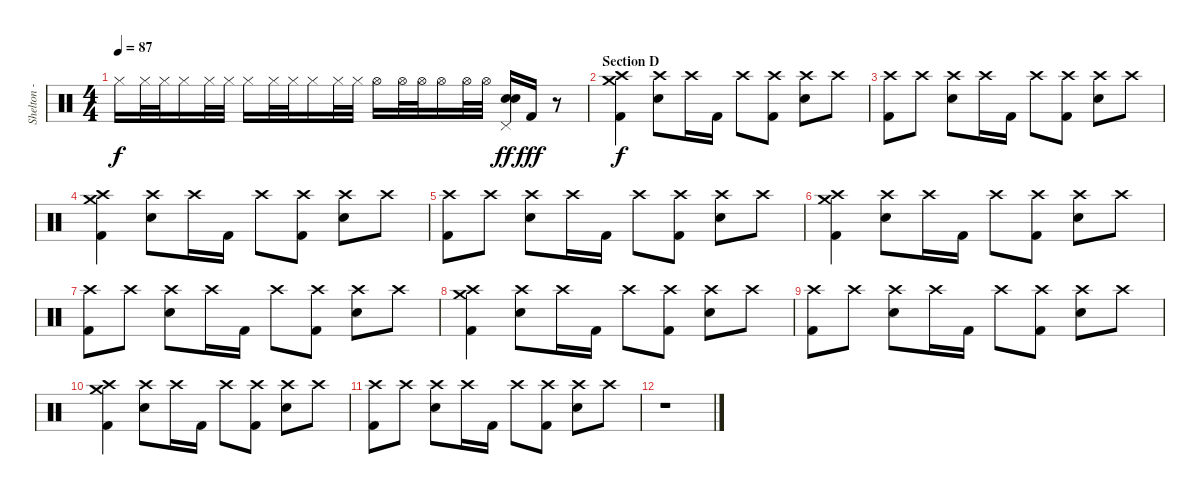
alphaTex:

\track ("Shelton - Drums" "Shelton - ") {instrument percussion}
\staff {score}
\articulation defaults
\ts (4 4)
\tempo 87
\clef neutral
\ks c "Hi-Hat (closed)".16{dy f volume 15} "Hi-Hat (closed)".32 "Hi-Hat (closed)".32 "Hi-Hat (closed)".16 "Hi-Hat (closed)".32 "Hi-Hat (closed)".32 "Hi-Hat (closed)".16 "Hi-Hat (closed)".32 "Hi-Hat (closed)".32 "Hi-Hat (closed)".16 "Hi-Hat (closed)".32 "Hi-Hat (closed)".32 "Hi-Hat (open)".16 "Hi-Hat (open)".32 "Hi-Hat (open)".32 "Hi-Hat (open)".16 "Hi-Hat (open)".32 "Hi-Hat (open)".32
("Pedal Hi-Hat (hit)" "Electric Snare (hit)" "Electric Snare (hit)").16{dy ff} "Kick (hit) 2".16{dy fff} r.8{volume 0} |
\section ("" "Section D")
("Crash high (hit)" "Crash medium (hit)" "Kick (hit) 2").4{dy f volume 15} ("Crash high (hit)" "Electric Snare (hit)").8 "Crash high (hit)".16 "Kick (hit) 2".16 "Crash high (hit)".8 ("Crash high (hit)" "Kick (hit) 2").8 ("Crash high (hit)" "Electric Snare (hit)").8 "Crash high (hit)".8 |
("Crash high (hit)" "Kick (hit) 2").8 "Crash high (hit)".8 ("Crash high (hit)" "Electric Snare (hit)").8 "Crash high (hit)".16 "Kick (hit) 2".16 "Crash high (hit)".8 ("Crash high (hit)" "Kick (hit) 2").8 ("Crash high (hit)" "Electric Snare (hit)").8 "Crash high (hit)".8 |
("Crash high (hit)" "Crash medium (hit)" "Kick (hit) 2").4 ("Crash high (hit)" "Electric Snare (hit)").8 "Crash high (hit)".16 "Kick (hit) 2".16 "Crash high (hit)".8 ("Crash high (hit)" "Kick (hit) 2").8 ("Crash high (hit)" "Electric Snare (hit)").8 "Crash high (hit)".8 |
("Crash high (hit)" "Kick (hit) 2").8 "Crash high (hit)".8 ("Crash high (hit)" "Electric Snare (hit)").8 "Crash high (hit)".16 "Kick (hit) 2".16 "Crash high (hit)".8 ("Crash high (hit)" "Kick (hit) 2").8 ("Crash high (hit)" "Electric Snare (hit)").8 "Crash high (hit)".8 |
("Crash high (hit)" "Crash medium (hit)" "Kick (hit) 2").4 ("Crash high (hit)" "Electric Snare (hit)").8 "Crash high (hit)".16 "Kick (hit) 2".16 "Crash high (hit)".8 ("Crash high (hit)" "Kick (hit) 2").8 ("Crash high (hit)" "Electric Snare (hit)").8 "Crash high (hit)".8 |
("Crash high (hit)" "Kick (hit) 2").8 "Crash high (hit)".8 ("Crash high (hit)" "Electric Snare (hit)").8 "Crash high (hit)".16 "Kick (hit) 2".16 "Crash high (hit)".8 ("Crash high (hit)" "Kick (hit) 2").8 ("Crash high (hit)" "Electric Snare (hit)").8 "Crash high (hit)".8 |
("Crash high (hit)" "Crash medium (hit)" "Kick (hit) 2").4 ("Crash high (hit)" "Electric Snare (hit)").8 "Crash high (hit)".16 "Kick (hit) 2".16 "Crash high (hit)".8 ("Crash high (hit)" "Kick (hit) 2").8 ("Crash high (hit)" "Electric Snare (hit)").8 "Crash high (hit)".8 |
("Crash high (hit)" "Kick (hit) 2").8 "Crash high (hit)".8 ("Crash high (hit)" "Electric Snare (hit)").8 "Crash high (hit)".16 "Kick (hit) 2".16 "Crash high (hit)".8 ("Crash high (hit)" "Kick (hit) 2").8 ("Crash high (hit)" "Electric Snare (hit)").8 "Crash high (hit)".8 |
("Crash high (hit)" "Crash medium (hit)" "Kick (hit) 2").4 ("Crash high (hit)" "Electric Snare (hit)").8 "Crash high (hit)".16 "Kick (hit) 2".16 "Crash high (hit)".8 ("Crash high (hit)" "Kick (hit) 2").8 ("Crash high (hit)" "Electric Snare (hit)").8 "Crash high (hit)".8 |
("Crash high (hit)" "Kick (hit) 2").8 "Crash high (hit)".8 ("Crash high (hit)" "Electric Snare (hit)").8 "Crash high (hit)".16 "Kick (hit) 2".16 "Crash high (hit)".8 ("Crash high (hit)" "Kick (hit) 2").8 ("Crash high (hit)" "Electric Snare (hit)").8 "Crash high (hit)".8 |
r.1
